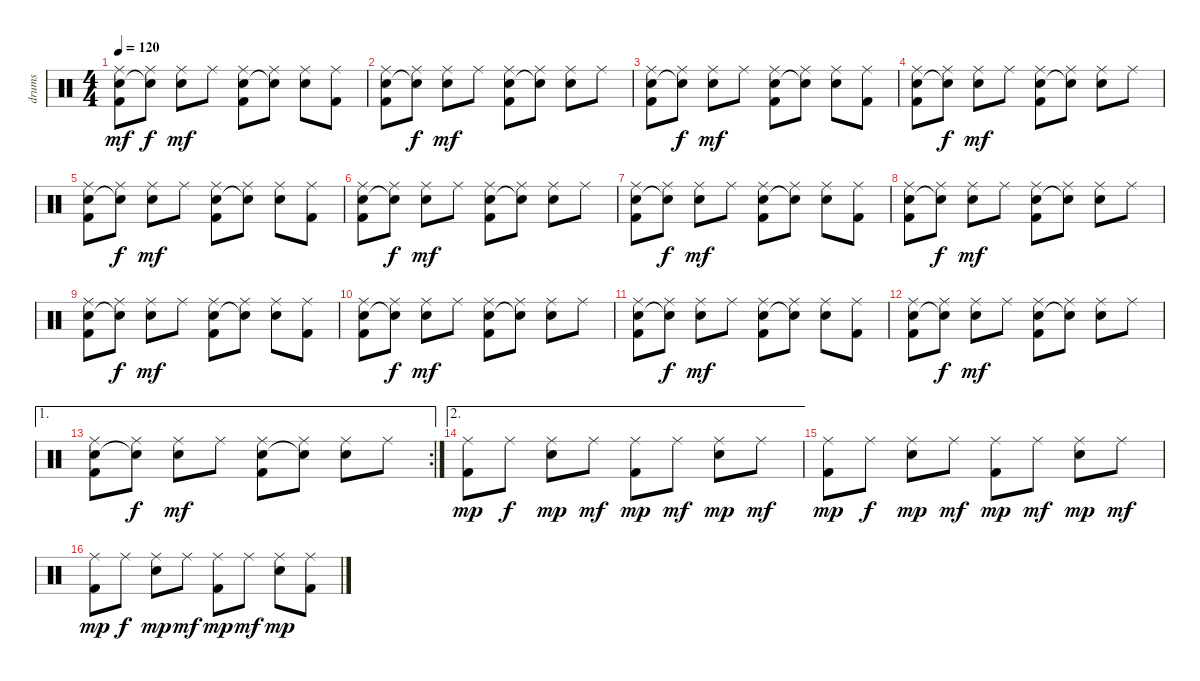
\track ("drums" "drums") {instrument percussion}
\staff {score}
\articulation defaults
\ts (4 4)
\tempo 120
\clef neutral
\ks c
("Ride (middle)" "Hand Clap (hit)" "Kick (hit) 2").8{dy mf} ("Ride (middle)" "Snare (hit)"{t}).8{dy f} ("Ride (middle)" "Snare (hit) 2").8{dy mf} "Ride (middle)".8 ("Ride (middle)" "Hand Clap (hit)" "Kick (hit) 2").8 ("Ride (middle)" "Snare (hit)"{t}).8 ("Ride (middle)" "Snare (hit) 2").8 ("Ride (middle)" "Kick (hit) 2").8 |
("Ride (middle)" "Hand Clap (hit)" "Kick (hit) 2").8 ("Ride (middle)" "Snare (hit)"{t}).8{dy f} ("Ride (middle)" "Snare (hit) 2").8{dy mf} "Ride (middle)".8 ("Ride (middle)" "Hand Clap (hit)" "Kick (hit) 2").8 ("Ride (middle)" "Snare (hit)"{t}).8 ("Ride (middle)" "Snare (hit) 2").8 "Ride (middle)".8 |
("Ride (middle)" "Hand Clap (hit)" "Kick (hit) 2").8 ("Ride (middle)" "Snare (hit)"{t}).8{dy f} ("Ride (middle)" "Snare (hit) 2").8{dy mf} "Ride (middle)".8 ("Ride (middle)" "Hand Clap (hit)" "Kick (hit) 2").8 ("Ride (middle)" "Snare (hit)"{t}).8 ("Ride (middle)" "Snare (hit) 2").8 ("Ride (middle)" "Kick (hit) 2").8 |
("Ride (middle)" "Hand Clap (hit)" "Kick (hit) 2").8 ("Ride (middle)" "Snare (hit)"{t}).8{dy f} ("Ride (middle)" "Snare (hit) 2").8{dy mf} "Ride (middle)".8 ("Ride (middle)" "Hand Clap (hit)" "Kick (hit) 2").8 ("Ride (middle)" "Snare (hit)"{t}).8 ("Ride (middle)" "Snare (hit) 2").8 "Ride (middle)".8 |
("Ride (middle)" "Hand Clap (hit)" "Kick (hit) 2").8 ("Ride (middle)" "Snare (hit)"{t}).8{dy f} ("Ride (middle)" "Snare (hit) 2").8{dy mf} "Ride (middle)".8 ("Ride (middle)" "Hand Clap (hit)" "Kick (hit) 2").8 ("Ride (middle)" "Snare (hit)"{t}).8 ("Ride (middle)" "Snare (hit) 2").8 ("Ride (middle)" "Kick (hit) 2").8 |
("Ride (middle)" "Hand Clap (hit)" "Kick (hit) 2").8 ("Ride (middle)" "Snare (hit)"{t}).8{dy f} ("Ride (middle)" "Snare (hit) 2").8{dy mf} "Ride (middle)".8 ("Ride (middle)" "Hand Clap (hit)" "Kick (hit) 2").8 ("Ride (middle)" "Snare (hit)"{t}).8 ("Ride (middle)" "Snare (hit) 2").8 "Ride (middle)".8 |
("Ride (middle)" "Hand Clap (hit)" "Kick (hit) 2").8 ("Ride (middle)" "Snare (hit)"{t}).8{dy f} ("Ride (middle)" "Snare (hit) 2").8{dy mf} "Ride (middle)".8 ("Ride (middle)" "Hand Clap (hit)" "Kick (hit) 2").8 ("Ride (middle)" "Snare (hit)"{t}).8 ("Ride (middle)" "Snare (hit) 2").8 ("Ride (middle)" "Kick (hit) 2").8 |
("Ride (middle)" "Hand Clap (hit)" "Kick (hit) 2").8 ("Ride (middle)" "Snare (hit)"{t}).8{dy f} ("Ride (middle)" "Snare (hit) 2").8{dy mf} "Ride (middle)".8 ("Ride (middle)" "Hand Clap (hit)" "Kick (hit) 2").8 ("Ride (middle)" "Snare (hit)"{t}).8 ("Ride (middle)" "Snare (hit) 2").8 "Ride (middle)".8 |
("Ride (middle)" "Hand Clap (hit)" "Kick (hit) 2").8 ("Ride (middle)" "Snare (hit)"{t}).8{dy f} ("Ride (middle)" "Snare (hit) 2").8{dy mf} "Ride (middle)".8 ("Ride (middle)" "Hand Clap (hit)" "Kick (hit) 2").8 ("Ride (middle)" "Snare (hit)"{t}).8 ("Ride (middle)" "Snare (hit) 2").8 ("Ride (middle)" "Kick (hit) 2").8 |
("Ride (middle)" "Hand Clap (hit)" "Kick (hit) 2").8 ("Ride (middle)" "Snare (hit)"{t}).8{dy f} ("Ride (middle)" "Snare (hit) 2").8{dy mf} "Ride (middle)".8 ("Ride (middle)" "Hand Clap (hit)" "Kick (hit) 2").8 ("Ride (middle)" "Snare (hit)"{t}).8 ("Ride (middle)" "Snare (hit) 2").8 "Ride (middle)".8 |
("Ride (middle)" "Hand Clap (hit)" "Kick (hit) 2").8 ("Ride (middle)" "Snare (hit)"{t}).8{dy f} ("Ride (middle)" "Snare (hit) 2").8{dy mf} "Ride (middle)".8 ("Ride (middle)" "Hand Clap (hit)" "Kick (hit) 2").8 ("Ride (middle)" "Snare (hit)"{t}).8 ("Ride (middle)" "Snare (hit) 2").8 ("Ride (middle)" "Kick (hit) 2").8 |
("Ride (middle)" "Hand Clap (hit)" "Kick (hit) 2").8 ("Ride (middle)" "Snare (hit)"{t}).8{dy f} ("Ride (middle)" "Snare (hit) 2").8{dy mf} "Ride (middle)".8 ("Ride (middle)" "Hand Clap (hit)" "Kick (hit) 2").8 ("Ride (middle)" "Snare (hit)"{t}).8 ("Ride (middle)" "Snare (hit) 2").8 "Ride (middle)".8 |
\ae 1
\rc 2
("Ride (middle)" "Hand Clap (hit)" "Kick (hit) 2").8 ("Ride (middle)" "Snare (hit)"{t}).8{dy f} ("Ride (middle)" "Snare (hit) 2").8{dy mf} "Ride (middle)".8 ("Ride (middle)" "Hand Clap (hit)" "Kick (hit) 2").8 ("Ride (middle)" "Snare (hit)"{t}).8 ("Ride (middle)" "Snare (hit) 2").8 "Ride (middle)".8 |
\ae 2
("Ride (middle)" "Kick (hit) 2").8{dy mp} "Ride (middle)".8{dy f} ("Ride (middle)" "Snare (hit) 2").8{dy mp} "Ride (middle)".8{dy mf} ("Ride (middle)" "Kick (hit) 2").8{dy mp} "Ride (middle)".8{dy mf} ("Ride (middle)" "Snare (hit) 2").8{dy mp} "Ride (middle)".8{dy mf} |
("Ride (middle)" "Kick (hit) 2").8{dy mp} "Ride (middle)".8{dy f} ("Ride (middle)" "Snare (hit) 2").8{dy mp} "Ride (middle)".8{dy mf} ("Ride (middle)" "Kick (hit) 2").8{dy mp} "Ride (middle)".8{dy mf} ("Ride (middle)" "Snare (hit) 2").8{dy mp} "Ride (middle)".8{dy mf} |
("Ride (middle)" "Kick (hit) 2").8{dy mp} "Ride (middle)".8{dy f} ("Ride (middle)" "Snare (hit) 2").8{dy mp} "Ride (middle)".8{dy mf} ("Ride (middle)" "Kick (hit) 2").8{dy mp} "Ride (middle)".8{dy mf} ("Ride (middle)" "Snare (hit) 2").8{dy mp} ("Ride (middle)" "Kick (hit) 2").8
